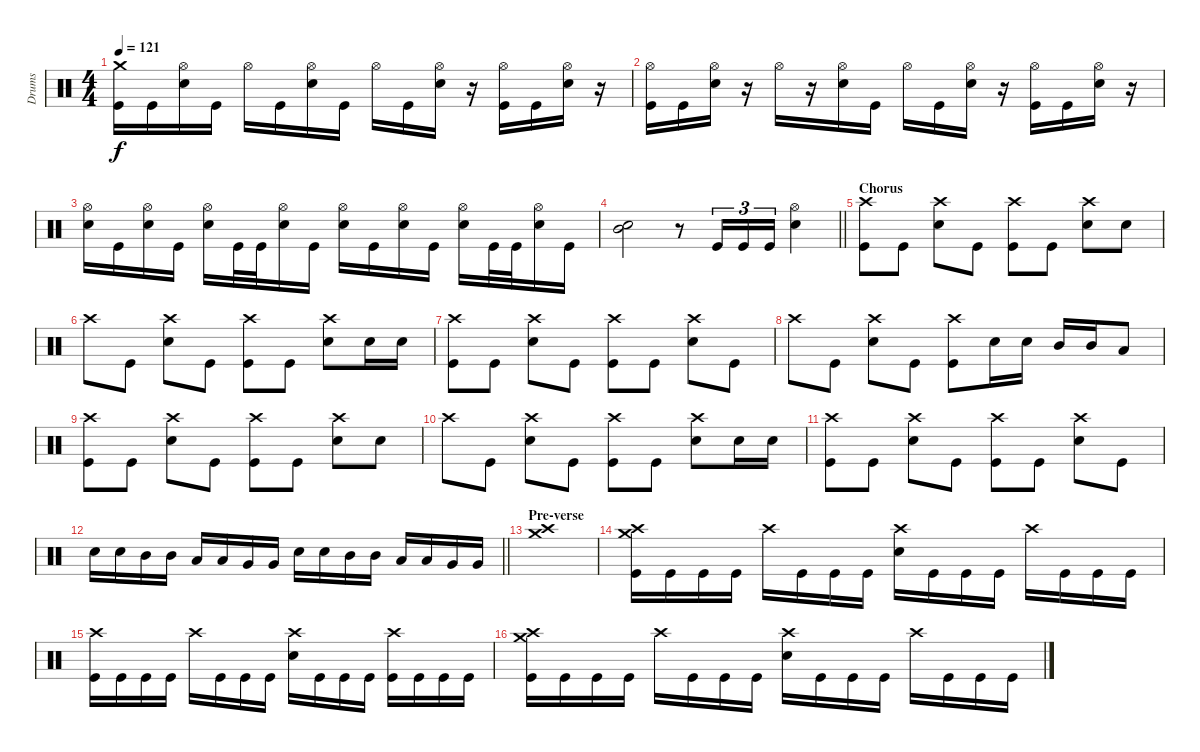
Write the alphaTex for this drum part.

\track ("Drums" "Drums") {instrument percussion}
\staff {score}
\articulation defaults
\ts (4 4)
\tempo 121
\clef neutral
\ks c
("Crash medium (hit)" "Kick (hit)").16{dy f} "Kick (hit)".16 ("Hi-Hat (open)" "Electric Snare (hit)").16 "Kick (hit)".16 "Hi-Hat (open)".16 "Kick (hit)".16 ("Hi-Hat (open)" "Electric Snare (hit)").16 "Kick (hit)".16 "Hi-Hat (open)".16 "Kick (hit)".16 ("Hi-Hat (open)" "Electric Snare (hit)").16 r.16 ("Hi-Hat (open)" "Kick (hit)").16 "Kick (hit)".16 ("Hi-Hat (open)" "Electric Snare (hit)").16 r.16 |
("Hi-Hat (open)" "Kick (hit)").16 "Kick (hit)".16 ("Hi-Hat (open)" "Electric Snare (hit)").16 r.16 "Hi-Hat (open)".16 r.16 ("Hi-Hat (open)" "Electric Snare (hit)").16 "Kick (hit)".16 "Hi-Hat (open)".16 "Kick (hit)".16 ("Hi-Hat (open)" "Electric Snare (hit)").16 r.16 ("Hi-Hat (open)" "Kick (hit)").16 "Kick (hit)".16 ("Hi-Hat (open)" "Electric Snare (hit)").16 r.16 |
("Hi-Hat (open)" "Electric Snare (hit)").16 "Kick (hit)".16 ("Hi-Hat (open)" "Electric Snare (hit)").16 "Kick (hit)".16 ("Hi-Hat (open)" "Electric Snare (hit)").16 "Kick (hit)".32 "Kick (hit)".32 ("Hi-Hat (open)" "Electric Snare (hit)").16 "Kick (hit)".16 ("Hi-Hat (open)" "Electric Snare (hit)").16 "Kick (hit)".16 ("Hi-Hat (open)" "Electric Snare (hit)").16 "Kick (hit)".16 ("Hi-Hat (open)" "Electric Snare (hit)").16 "Kick (hit)".32 "Kick (hit)".32 ("Hi-Hat (open)" "Electric Snare (hit)").16 "Kick (hit)".16 |
\barLineRight lightlight
("Electric Snare (hit)" "Mid Tom (hit)").2 r.8 "Kick (hit)".16{tu (3 2)} "Kick (hit)".16{tu (3 2)} "Kick (hit)".16{tu (3 2)} ("Hi-Hat (open)" "Electric Snare (hit)").4 |
\section ("" "Chorus")
("Crash high (hit)" "Kick (hit)").8 "Kick (hit)".8 ("Crash high (hit)" "Electric Snare (hit)").8 "Kick (hit)".8 ("Crash high (hit)" "Kick (hit)").8 "Kick (hit)".8 ("Crash high (hit)" "Electric Snare (hit)").8 "Electric Snare (hit)".8 |
"Crash high (hit)".8 "Kick (hit)".8 ("Crash high (hit)" "Electric Snare (hit)").8 "Kick (hit)".8 ("Crash high (hit)" "Kick (hit)").8 "Kick (hit)".8 ("Crash high (hit)" "Electric Snare (hit)").8 "Electric Snare (hit)".16 "Electric Snare (hit)".16 |
("Crash high (hit)" "Kick (hit)").8 "Kick (hit)".8 ("Crash high (hit)" "Electric Snare (hit)").8 "Kick (hit)".8 ("Crash high (hit)" "Kick (hit)").8 "Kick (hit)".8 ("Crash high (hit)" "Electric Snare (hit)").8 "Kick (hit)".8 |
"Crash high (hit)".8 "Kick (hit)".8 ("Crash high (hit)" "Electric Snare (hit)").8 "Kick (hit)".8 ("Crash high (hit)" "Kick (hit)").8 "Electric Snare (hit)".16 "Electric Snare (hit)".16 "Mid Tom (hit)".16 "Mid Tom (hit)".16 "Low Tom (hit)".8 |
("Crash high (hit)" "Kick (hit)").8 "Kick (hit)".8 ("Crash high (hit)" "Electric Snare (hit)").8 "Kick (hit)".8 ("Crash high (hit)" "Kick (hit)").8 "Kick (hit)".8 ("Crash high (hit)" "Electric Snare (hit)").8 "Electric Snare (hit)".8 |
"Crash high (hit)".8 "Kick (hit)".8 ("Crash high (hit)" "Electric Snare (hit)").8 "Kick (hit)".8 ("Crash high (hit)" "Kick (hit)").8 "Kick (hit)".8 ("Crash high (hit)" "Electric Snare (hit)").8 "Electric Snare (hit)".16 "Electric Snare (hit)".16 |
("Crash high (hit)" "Kick (hit)").8 "Kick (hit)".8 ("Crash high (hit)" "Electric Snare (hit)").8 "Kick (hit)".8 ("Crash high (hit)" "Kick (hit)").8 "Kick (hit)".8 ("Crash high (hit)" "Electric Snare (hit)").8 "Kick (hit)".8 |
\barLineRight lightlight "Electric Snare (hit)".16 "Electric Snare (hit)".16 "Mid Tom (hit)".16 "Mid Tom (hit)".16 "Low Tom (hit)".16 "Low Tom (hit)".16 "Very Low Tom (hit)".16 "Very Low Tom (hit)".16 "Electric Snare (hit)".16 "Electric Snare (hit)".16 "Mid Tom (hit)".16 "Mid Tom (hit)".16 "Low Tom (hit)".16 "Low Tom (hit)".16 "Very Low Tom (hit)".16 "Very Low Tom (hit)".16
|
\section ("" "Pre-verse")
("Crash medium (hit)" "Crash high (hit)").1 |
("Crash high (hit)" "Crash medium (hit)" "Kick (hit)").16 "Kick (hit)".16 "Kick (hit)".16 "Kick (hit)".16 "Crash high (hit)".16 "Kick (hit)".16 "Kick (hit)".16 "Kick (hit)".16 ("Crash high (hit)" "Electric Snare (hit)").16 "Kick (hit)".16 "Kick (hit)".16 "Kick (hit)".16 "Crash high (hit)".16 "Kick (hit)".16 "Kick (hit)".16 "Kick (hit)".16 |
("Crash high (hit)" "Kick (hit)").16 "Kick (hit)".16 "Kick (hit)".16 "Kick (hit)".16 "Crash high (hit)".16 "Kick (hit)".16 "Kick (hit)".16 "Kick (hit)".16 ("Crash high (hit)" "Electric Snare (hit)").16 "Kick (hit)".16 "Kick (hit)".16 "Kick (hit)".16 ("Crash high (hit)" "Kick (hit)").16 "Kick (hit)".16 "Kick (hit)".16 "Kick (hit)".16 |
("Crash high (hit)" "Crash medium (hit)" "Kick (hit)").16 "Kick (hit)".16 "Kick (hit)".16 "Kick (hit)".16 "Crash high (hit)".16 "Kick (hit)".16 "Kick (hit)".16 "Kick (hit)".16 ("Crash high (hit)" "Electric Snare (hit)").16 "Kick (hit)".16 "Kick (hit)".16 "Kick (hit)".16 "Crash high (hit)".16 "Kick (hit)".16 "Kick (hit)".16 "Kick (hit)".16
